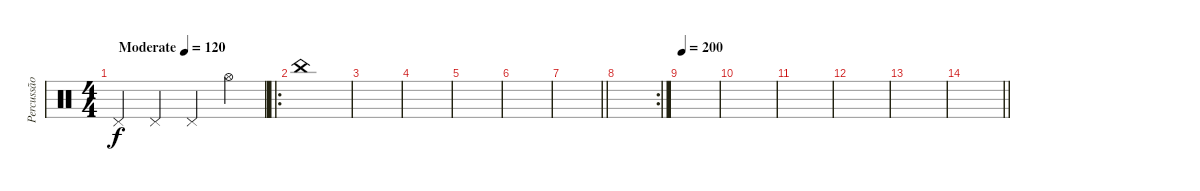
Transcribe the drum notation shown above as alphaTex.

\track ("Percussão" "Percussão") {instrument percussion}
\staff {score}
\articulation defaults
\ts (4 4)
\tempo (120 "Moderate")
\clef neutral
\ks c "Pedal Hi-Hat (hit)".4{dy f} "Pedal Hi-Hat (hit)".4 "Pedal Hi-Hat (hit)".4 "Hi-Hat (open)".4
|
\ro "China (hit)".1
|
|
|
|
|
\barLineRight lightlight
|
\rc 2
|
\tempo 180
\tempo 200
|
|
|
|
|
\barLineRight lightlight
